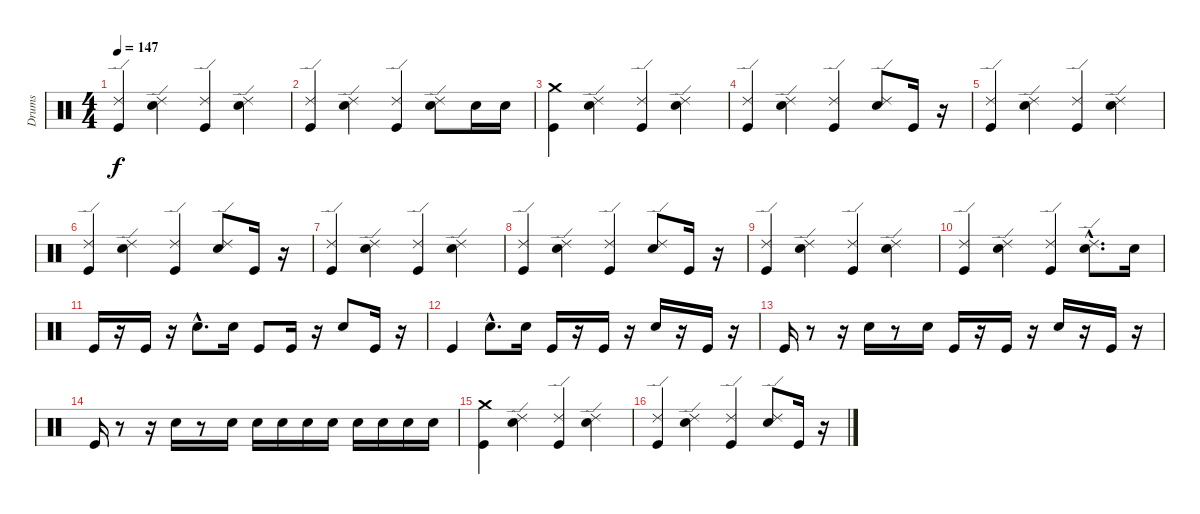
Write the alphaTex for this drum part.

\track ("Drums" "Drums") {instrument percussion}
\staff {score}
\articulation defaults
\ts (4 4)
\tempo 147
\clef neutral
\ks c
("Ride (edge) 2" "Kick (hit)").4{dy f} ("Ride (edge) 2" "Snare (hit) 2").4 ("Ride (edge) 2" "Kick (hit)").4 ("Ride (edge) 2" "Snare (hit) 2").4 |
("Ride (edge) 2" "Kick (hit)").4 ("Ride (edge) 2" "Snare (hit) 2").4 ("Ride (edge) 2" "Kick (hit)").4 ("Ride (edge) 2" "Snare (hit) 2").8 "Snare (hit) 2".16 "Snare (hit) 2".16 |
("Crash medium (hit)" "Kick (hit)").4 ("Ride (edge) 2" "Snare (hit) 2").4 ("Ride (edge) 2" "Kick (hit)").4 ("Ride (edge) 2" "Snare (hit) 2").4 |
("Ride (edge) 2" "Kick (hit)").4 ("Ride (edge) 2" "Snare (hit) 2").4 ("Ride (edge) 2" "Kick (hit)").4 ("Ride (edge) 2" "Snare (hit) 2").8 "Kick (hit)".16 r.16 |
("Ride (edge) 2" "Kick (hit)").4 ("Ride (edge) 2" "Snare (hit) 2").4 ("Ride (edge) 2" "Kick (hit)").4 ("Ride (edge) 2" "Snare (hit) 2").4 |
("Ride (edge) 2" "Kick (hit)").4 ("Ride (edge) 2" "Snare (hit) 2").4 ("Ride (edge) 2" "Kick (hit)").4 ("Ride (edge) 2" "Snare (hit) 2").8 "Kick (hit)".16 r.16 |
("Ride (edge) 2" "Kick (hit)").4 ("Ride (edge) 2" "Snare (hit) 2").4 ("Ride (edge) 2" "Kick (hit)").4 ("Ride (edge) 2" "Snare (hit) 2").4 |
("Ride (edge) 2" "Kick (hit)").4 ("Ride (edge) 2" "Snare (hit) 2").4 ("Ride (edge) 2" "Kick (hit)").4 ("Ride (edge) 2" "Snare (hit) 2").8 "Kick (hit)".16 r.16 |
("Ride (edge) 2" "Kick (hit)").4 ("Ride (edge) 2" "Snare (hit) 2").4 ("Ride (edge) 2" "Kick (hit)").4 ("Ride (edge) 2" "Snare (hit) 2").4 |
("Ride (edge) 2" "Kick (hit)").4 ("Ride (edge) 2" "Snare (hit) 2").4 ("Ride (edge) 2" "Kick (hit)").4 ("Ride (edge) 2"{hac} "Snare (hit) 2"{hac}).8{d} "Snare (hit) 2".16 |
"Kick (hit)".16 r.16 "Kick (hit)".16 r.16 "Snare (hit) 2"{hac}.8{d} "Snare (hit) 2".16 "Kick (hit)".8 "Kick (hit)".16 r.16 "Snare (hit) 2".8 "Kick (hit)".16 r.16 |
"Kick (hit)".4 "Snare (hit) 2"{hac}.8{d} "Snare (hit) 2".16 "Kick (hit)".16 r.16 "Kick (hit)".16 r.16 "Snare (hit) 2".16 r.16 "Kick (hit)".16 r.16 |
"Kick (hit)".16 r.8 r.16 "Snare (hit) 2".16 r.8 "Snare (hit) 2".16 "Kick (hit)".16 r.16 "Kick (hit)".16 r.16 "Snare (hit) 2".16 r.16 "Kick (hit)".16 r.16 |
"Kick (hit)".16 r.8 r.16 "Snare (hit) 2".16 r.8 "Snare (hit) 2".16 "Snare (hit) 2".16 "Snare (hit) 2".16 "Snare (hit) 2".16 "Snare (hit) 2".16 "Snare (hit) 2".16 "Snare (hit) 2".16 "Snare (hit) 2".16 "Snare (hit) 2".16 |
("Crash medium (hit)" "Kick (hit)").4 ("Ride (edge) 2" "Snare (hit) 2").4 ("Ride (edge) 2" "Kick (hit)").4 ("Ride (edge) 2" "Snare (hit) 2").4 |
("Ride (edge) 2" "Kick (hit)").4 ("Ride (edge) 2" "Snare (hit) 2").4 ("Ride (edge) 2" "Kick (hit)").4 ("Ride (edge) 2" "Snare (hit) 2").8 "Kick (hit)".16 r.16
